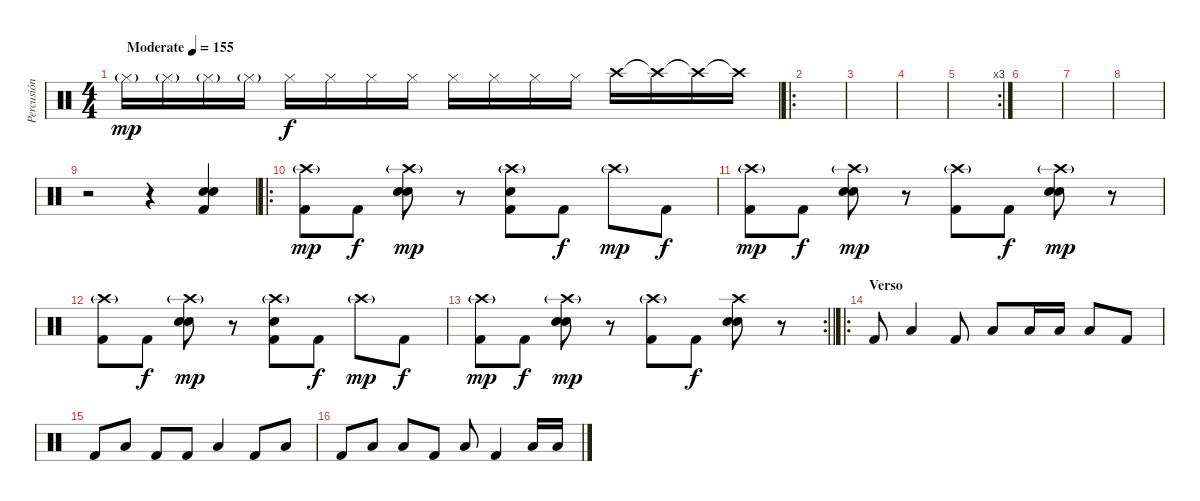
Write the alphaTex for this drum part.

\track ("Percusión" "Percusión") {instrument percussion}
\staff {score}
\articulation defaults
\ts (4 4)
\tempo (155 "Moderate")
\clef neutral
\ks c "Hi-Hat (closed)"{g}.16{dy mp} "Hi-Hat (closed)"{g}.16 "Hi-Hat (closed)"{g}.16 "Hi-Hat (closed)"{g}.16 "Hi-Hat (closed)".16{dy f} "Hi-Hat (closed)".16 "Hi-Hat (closed)".16 "Hi-Hat (closed)".16 "Hi-Hat (closed)".16 "Hi-Hat (closed)".16 "Hi-Hat (closed)".16 "Hi-Hat (closed)".16 "Crash high (hit)".16 "Crash high (hit)"{t}.16 "Crash high (hit)"{t}.16 "Crash high (hit)"{t}.16
|
\ro
|
|
|
\rc 3
|
|
|
|
r.2 r.4 ("Kick (hit) 2" "Snare (hit) 2" "Electric Snare (hit)").4 |
\ro
("Crash high (hit)"{g} "Kick (hit) 2").8{dy mp} "Kick (hit) 2".8{dy f} ("Crash high (hit)"{g} "Electric Snare (hit)" "Snare (hit) 2").8{dy mp} r.8 ("Crash high (hit)"{g} "Electric Snare (hit)" "Kick (hit) 2").8 "Kick (hit) 2".8{dy f} "Crash high (hit)"{g}.8{dy mp} "Kick (hit) 2".8{dy f} |
("Crash high (hit)"{g} "Kick (hit) 2").8{dy mp} "Kick (hit) 2".8{dy f} ("Crash high (hit)"{g} "Electric Snare (hit)" "Snare (hit) 2").8{dy mp} r.8 ("Crash high (hit)"{g} "Kick (hit) 2").8 "Kick (hit) 2".8{dy f} ("Crash high (hit)"{g} "Electric Snare (hit)" "Snare (hit) 2").8{dy mp} r.8 |
("Crash high (hit)"{g} "Kick (hit) 2").8 "Kick (hit) 2".8{dy f} ("Crash high (hit)"{g} "Electric Snare (hit)" "Snare (hit) 2").8{dy mp} r.8 ("Crash high (hit)"{g} "Electric Snare (hit)" "Kick (hit) 2").8 "Kick (hit) 2".8{dy f} "Crash high (hit)"{g}.8{dy mp} "Kick (hit) 2".8{dy f} |
\rc 2
\barLineRight lightlight
("Crash high (hit)"{g} "Kick (hit) 2").8{dy mp} "Kick (hit) 2".8{dy f} ("Crash high (hit)"{g} "Electric Snare (hit)" "Snare (hit) 2").8{dy mp} r.8 ("Crash high (hit)"{g} "Kick (hit) 2").8 "Kick (hit) 2".8{dy f} ("Crash high (hit)" "Electric Snare (hit)" "Snare (hit) 2").8 r.8 |
\ro
\section ("" "Verso")
"Kick (hit) 2".8 "Low Floor Tom (hit)".4 "Kick (hit) 2".8 "Low Floor Tom (hit)".8 "Low Floor Tom (hit)".16 "Low Floor Tom (hit)".16 "Low Floor Tom (hit)".8 "Kick (hit) 2".8 |
"Kick (hit) 2".8 "Low Floor Tom (hit)".8 "Kick (hit) 2".8 "Kick (hit) 2".8 "Low Floor Tom (hit)".4 "Kick (hit) 2".8 "Low Floor Tom (hit)".8 |
"Kick (hit) 2".8 "Low Floor Tom (hit)".8 "Low Floor Tom (hit)".8 "Kick (hit) 2".8 "Low Floor Tom (hit)".8 "Kick (hit) 2".4 "Low Floor Tom (hit)".16 "Low Floor Tom (hit)".16
